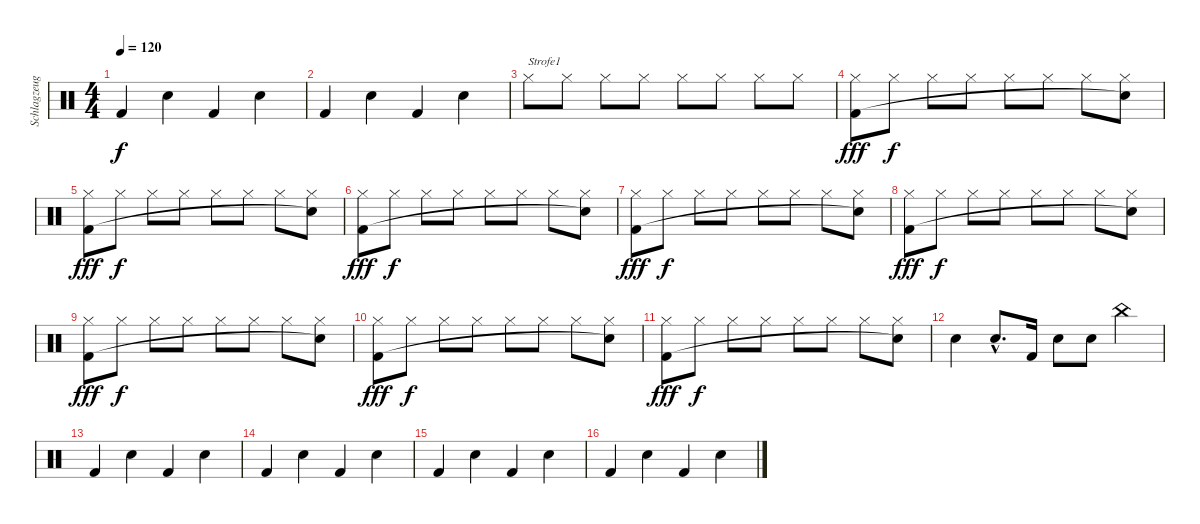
\track ("Schlagzeug" "Schlagzeug") {instrument percussion}
\staff {score}
\articulation defaults
\ts (4 4)
\tempo 120
\clef neutral
\ks c "Kick (hit) 2".4{dy f} "Snare (hit) 2".4 "Kick (hit) 2".4 "Snare (hit) 2".4
|
"Kick (hit) 2".4 "Snare (hit) 2".4 "Kick (hit) 2".4 "Snare (hit) 2".4 |
"Hi-Hat (closed)".8{txt "Strofe1"} "Hi-Hat (closed)".8 "Hi-Hat (closed)".8 "Hi-Hat (closed)".8 "Hi-Hat (closed)".8 "Hi-Hat (closed)".8 "Hi-Hat (closed)".8 "Hi-Hat (closed)".8 |
("Hi-Hat (closed)" "Kick (hit) 2").8{dy fff} "Hi-Hat (closed)".8{dy f} "Hi-Hat (closed)".8 "Hi-Hat (closed)".8 "Hi-Hat (closed)".8 "Hi-Hat (closed)".8 "Hi-Hat (closed)".8 ("Hi-Hat (closed)" "Snare (hit)"{t}).8 |
("Hi-Hat (closed)" "Kick (hit) 2").8{dy fff} "Hi-Hat (closed)".8{dy f} "Hi-Hat (closed)".8 "Hi-Hat (closed)".8 "Hi-Hat (closed)".8 "Hi-Hat (closed)".8 "Hi-Hat (closed)".8 ("Hi-Hat (closed)" "Snare (hit)"{t}).8 |
("Hi-Hat (closed)" "Kick (hit) 2").8{dy fff} "Hi-Hat (closed)".8{dy f} "Hi-Hat (closed)".8 "Hi-Hat (closed)".8 "Hi-Hat (closed)".8 "Hi-Hat (closed)".8 "Hi-Hat (closed)".8 ("Hi-Hat (closed)" "Snare (hit)"{t}).8 |
("Hi-Hat (closed)" "Kick (hit) 2").8{dy fff} "Hi-Hat (closed)".8{dy f} "Hi-Hat (closed)".8 "Hi-Hat (closed)".8 "Hi-Hat (closed)".8 "Hi-Hat (closed)".8 "Hi-Hat (closed)".8 ("Hi-Hat (closed)" "Snare (hit)"{t}).8 |
("Hi-Hat (closed)" "Kick (hit) 2").8{dy fff} "Hi-Hat (closed)".8{dy f} "Hi-Hat (closed)".8 "Hi-Hat (closed)".8 "Hi-Hat (closed)".8 "Hi-Hat (closed)".8 "Hi-Hat (closed)".8 ("Hi-Hat (closed)" "Snare (hit)"{t}).8 |
("Hi-Hat (closed)" "Kick (hit) 2").8{dy fff} "Hi-Hat (closed)".8{dy f} "Hi-Hat (closed)".8 "Hi-Hat (closed)".8 "Hi-Hat (closed)".8 "Hi-Hat (closed)".8 "Hi-Hat (closed)".8 ("Hi-Hat (closed)" "Snare (hit)"{t}).8 |
("Hi-Hat (closed)" "Kick (hit) 2").8{dy fff} "Hi-Hat (closed)".8{dy f} "Hi-Hat (closed)".8 "Hi-Hat (closed)".8 "Hi-Hat (closed)".8 "Hi-Hat (closed)".8 "Hi-Hat (closed)".8 ("Hi-Hat (closed)" "Snare (hit)"{t}).8 |
("Hi-Hat (closed)" "Kick (hit) 2").8{dy fff} "Hi-Hat (closed)".8{dy f} "Hi-Hat (closed)".8 "Hi-Hat (closed)".8 "Hi-Hat (closed)".8 "Hi-Hat (closed)".8 "Hi-Hat (closed)".8 ("Hi-Hat (closed)" "Snare (hit)"{t}).8 |
"Snare (hit) 2".4 "Snare (hit) 2"{hac}.8{d} "Kick (hit) 2".16 "Snare (hit) 2".8 "Snare (hit) 2".8 "China (hit)".4 |
"Kick (hit) 2".4 "Snare (hit) 2".4 "Kick (hit) 2".4 "Snare (hit) 2".4 |
"Kick (hit) 2".4 "Snare (hit) 2".4 "Kick (hit) 2".4 "Snare (hit) 2".4 |
"Kick (hit) 2".4 "Snare (hit) 2".4 "Kick (hit) 2".4 "Snare (hit) 2".4 |
"Kick (hit) 2".4 "Snare (hit) 2".4 "Kick (hit) 2".4 "Snare (hit) 2".4
